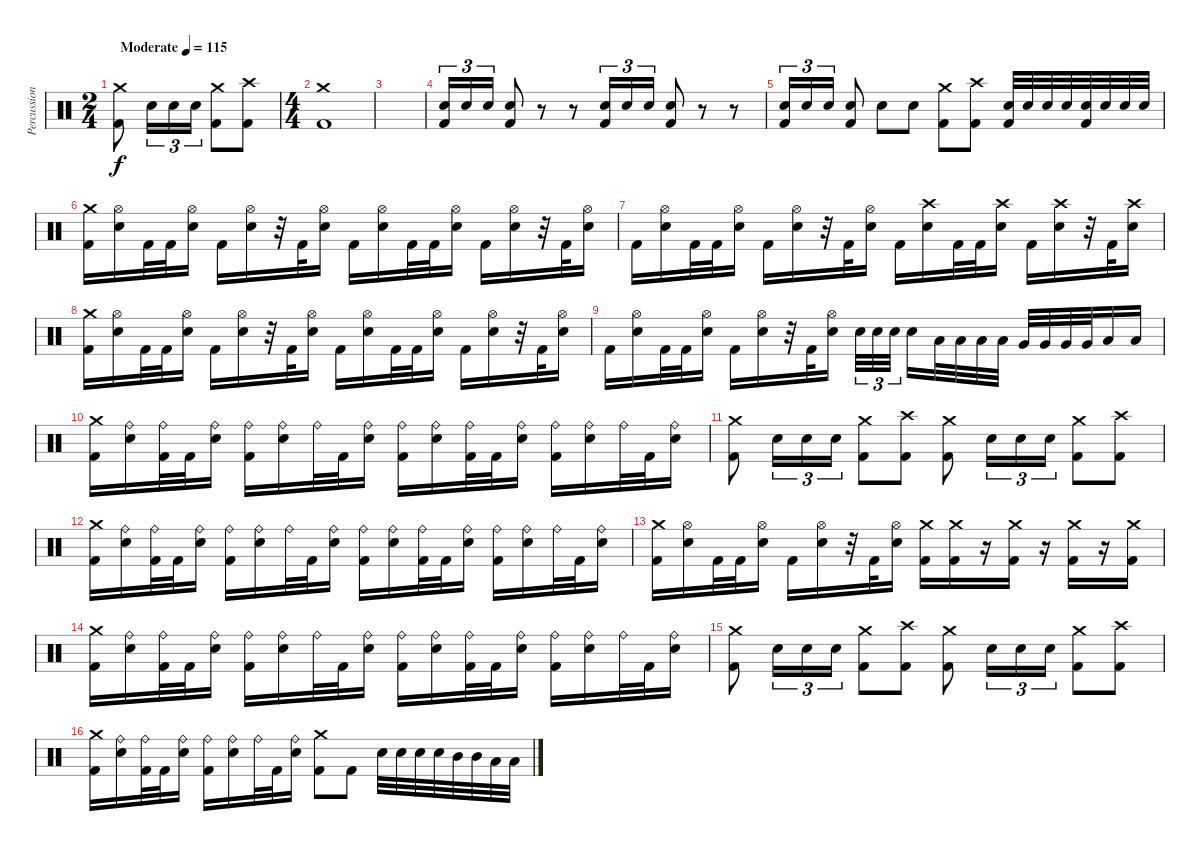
\track ("Percussion" "Percussion") {instrument percussion}
\staff {score}
\articulation defaults
\ts (2 4)
\tempo (115 "Moderate")
\clef neutral
\ks c
("Crash medium (hit)" "Kick (hit) 2").8{dy f} "Electric Snare (hit)".16{tu (3 2)} "Electric Snare (hit)".16{tu (3 2)} "Electric Snare (hit)".16{tu (3 2)} ("Crash medium (hit)" "Kick (hit) 2").8 ("Crash high (hit)" "Kick (hit) 2").8 |
\ts (4 4)
("Crash medium (hit)" "Kick (hit) 2").1 |
|
("Electric Snare (hit)" "Kick (hit) 2").16{tu (3 2)} "Electric Snare (hit)".16{tu (3 2)} "Electric Snare (hit)".16{tu (3 2)} ("Electric Snare (hit)" "Kick (hit) 2").8 r.8 r.8 ("Electric Snare (hit)" "Kick (hit) 2").16{tu (3 2)} "Electric Snare (hit)".16{tu (3 2)} "Electric Snare (hit)".16{tu (3 2)} ("Electric Snare (hit)" "Kick (hit) 2").8 r.8 r.8 |
("Electric Snare (hit)" "Kick (hit) 2").16{tu (3 2)} "Electric Snare (hit)".16{tu (3 2)} "Electric Snare (hit)".16{tu (3 2)} ("Electric Snare (hit)" "Kick (hit) 2").8 "Electric Snare (hit)".8 "Electric Snare (hit)".8 ("Crash medium (hit)" "Kick (hit) 2").8 ("Crash high (hit)" "Kick (hit) 2").8 ("Electric Snare (hit)" "Kick (hit) 2").32 "Electric Snare (hit)".32 "Electric Snare (hit)".32 "Electric Snare (hit)".32 ("Electric Snare (hit)" "Kick (hit) 2").32 "Electric Snare (hit)".32 "Electric Snare (hit)".32 "Electric Snare (hit)".32 |
("Crash medium (hit)" "Kick (hit) 2").16 ("Hi-Hat (open)" "Electric Snare (hit)").16 "Kick (hit) 2".32 "Kick (hit) 2".32 ("Hi-Hat (open)" "Electric Snare (hit)").16 "Kick (hit) 2".16 ("Hi-Hat (open)" "Electric Snare (hit)").16 r.32 "Kick (hit) 2".32 ("Hi-Hat (open)" "Electric Snare (hit)").16 "Kick (hit) 2".16 ("Hi-Hat (open)" "Electric Snare (hit)").16 "Kick (hit) 2".32 "Kick (hit) 2".32 ("Hi-Hat (open)" "Electric Snare (hit)").16 "Kick (hit) 2".16 ("Hi-Hat (open)" "Electric Snare (hit)").16 r.32 "Kick (hit) 2".32 ("Hi-Hat (open)" "Electric Snare (hit)").16 |
"Kick (hit) 2".16 ("Hi-Hat (open)" "Electric Snare (hit)").16 "Kick (hit) 2".32 "Kick (hit) 2".32 ("Hi-Hat (open)" "Electric Snare (hit)").16 "Kick (hit) 2".16 ("Hi-Hat (open)" "Electric Snare (hit)").16 r.32 "Kick (hit) 2".32 ("Hi-Hat (open)" "Electric Snare (hit)").16 "Kick (hit) 2".16 ("Crash high (hit)" "Electric Snare (hit)").16 "Kick (hit) 2".32 "Kick (hit) 2".32 ("Crash high (hit)" "Electric Snare (hit)").16 "Kick (hit) 2".16 ("Crash high (hit)" "Electric Snare (hit)").16 r.32 "Kick (hit) 2".32 ("Crash high (hit)" "Electric Snare (hit)").16 |
("Crash medium (hit)" "Kick (hit) 2").16 ("Hi-Hat (open)" "Electric Snare (hit)").16 "Kick (hit) 2".32 "Kick (hit) 2".32 ("Hi-Hat (open)" "Electric Snare (hit)").16 "Kick (hit) 2".16 ("Hi-Hat (open)" "Electric Snare (hit)").16 r.32 "Kick (hit) 2".32 ("Hi-Hat (open)" "Electric Snare (hit)").16 "Kick (hit) 2".16 ("Hi-Hat (open)" "Electric Snare (hit)").16 "Kick (hit) 2".32 "Kick (hit) 2".32 ("Hi-Hat (open)" "Electric Snare (hit)").16 "Kick (hit) 2".16 ("Hi-Hat (open)" "Electric Snare (hit)").16 r.32 "Kick (hit) 2".32 ("Hi-Hat (open)" "Electric Snare (hit)").16 |
"Kick (hit) 2".16 ("Hi-Hat (open)" "Electric Snare (hit)").16 "Kick (hit) 2".32 "Kick (hit) 2".32 ("Hi-Hat (open)" "Electric Snare (hit)").16 "Kick (hit) 2".16 ("Hi-Hat (open)" "Electric Snare (hit)").16 r.32 "Kick (hit) 2".32 ("Hi-Hat (open)" "Electric Snare (hit)").16 "Electric Snare (hit)".32{tu (3 2)} "Electric Snare (hit)".32{tu (3 2)} "Electric Snare (hit)".32{tu (3 2) beam splitsecondary} "Electric Snare (hit)".16 "Low Tom (hit)".32 "Low Tom (hit)".32 "Low Tom (hit)".32 "Low Tom (hit)".32 "Very Low Tom (hit)".32 "Very Low Tom (hit)".32 "Very Low Tom (hit)".32 "Very Low Tom (hit)".32 "Low Floor Tom (hit)".16 "Low Floor Tom (hit)".16 |
("Crash medium (hit)" "Kick (hit) 2").16 ("Ride (bell)" "Electric Snare (hit)").16 ("Ride (bell)" "Kick (hit) 2").32 "Kick (hit) 2".32 ("Ride (bell)" "Electric Snare (hit)").16 ("Ride (bell)" "Kick (hit) 2").16 ("Ride (bell)" "Electric Snare (hit)").16 "Ride (bell)".32 "Kick (hit) 2".32 ("Ride (bell)" "Electric Snare (hit)").16 ("Ride (bell)" "Kick (hit) 2").16 ("Ride (bell)" "Electric Snare (hit)").16 ("Ride (bell)" "Kick (hit) 2").32 "Kick (hit) 2".32 ("Ride (bell)" "Electric Snare (hit)").16 ("Ride (bell)" "Kick (hit) 2").16 ("Ride (bell)" "Electric Snare (hit)").16 "Ride (bell)".32 "Kick (hit) 2".32 ("Ride (bell)" "Electric Snare (hit)").16 |
("Crash medium (hit)" "Kick (hit) 2").8 "Electric Snare (hit)".16{tu (3 2)} "Electric Snare (hit)".16{tu (3 2)} "Electric Snare (hit)".16{tu (3 2)} ("Crash medium (hit)" "Kick (hit) 2").8 ("Crash high (hit)" "Kick (hit) 2").8 ("Crash medium (hit)" "Kick (hit) 2").8 "Electric Snare (hit)".16{tu (3 2)} "Electric Snare (hit)".16{tu (3 2)} "Electric Snare (hit)".16{tu (3 2)} ("Crash medium (hit)" "Kick (hit) 2").8 ("Crash high (hit)" "Kick (hit) 2").8 |
("Crash medium (hit)" "Kick (hit) 2").16 ("Ride (bell)" "Electric Snare (hit)").16 ("Ride (bell)" "Kick (hit) 2").32 "Kick (hit) 2".32 ("Ride (bell)" "Electric Snare (hit)").16 ("Ride (bell)" "Kick (hit) 2").16 ("Ride (bell)" "Electric Snare (hit)").16 "Ride (bell)".32 "Kick (hit) 2".32 ("Ride (bell)" "Electric Snare (hit)").16 ("Ride (bell)" "Kick (hit) 2").16 ("Ride (bell)" "Electric Snare (hit)").16 ("Ride (bell)" "Kick (hit) 2").32 "Kick (hit) 2".32 ("Ride (bell)" "Electric Snare (hit)").16 ("Ride (bell)" "Kick (hit) 2").16 ("Ride (bell)" "Electric Snare (hit)").16 "Ride (bell)".32 "Kick (hit) 2".32 ("Ride (bell)" "Electric Snare (hit)").16 |
("Crash medium (hit)" "Kick (hit) 2").16 ("Hi-Hat (open)" "Electric Snare (hit)").16 "Kick (hit) 2".32 "Kick (hit) 2".32 ("Hi-Hat (open)" "Electric Snare (hit)").16 "Kick (hit) 2".16 ("Hi-Hat (open)" "Electric Snare (hit)").16 r.32 "Kick (hit) 2".32 ("Hi-Hat (open)" "Electric Snare (hit)").16 ("Crash medium (hit)" "Kick (hit) 2").16 ("Crash medium (hit)" "Kick (hit) 2").16 r.16 ("Crash medium (hit)" "Kick (hit) 2").16 r.16 ("Crash medium (hit)" "Kick (hit) 2").16 r.16 ("Crash medium (hit)" "Kick (hit) 2").16 |
("Crash medium (hit)" "Kick (hit) 2").16 ("Ride (bell)" "Electric Snare (hit)").16 ("Ride (bell)" "Kick (hit) 2").32 "Kick (hit) 2".32 ("Ride (bell)" "Electric Snare (hit)").16 ("Ride (bell)" "Kick (hit) 2").16 ("Ride (bell)" "Electric Snare (hit)").16 "Ride (bell)".32 "Kick (hit) 2".32 ("Ride (bell)" "Electric Snare (hit)").16 ("Ride (bell)" "Kick (hit) 2").16 ("Ride (bell)" "Electric Snare (hit)").16 ("Ride (bell)" "Kick (hit) 2").32 "Kick (hit) 2".32 ("Ride (bell)" "Electric Snare (hit)").16 ("Ride (bell)" "Kick (hit) 2").16 ("Ride (bell)" "Electric Snare (hit)").16 "Ride (bell)".32 "Kick (hit) 2".32 ("Ride (bell)" "Electric Snare (hit)").16 |
("Crash medium (hit)" "Kick (hit) 2").8 "Electric Snare (hit)".16{tu (3 2)} "Electric Snare (hit)".16{tu (3 2)} "Electric Snare (hit)".16{tu (3 2)} ("Crash medium (hit)" "Kick (hit) 2").8 ("Crash high (hit)" "Kick (hit) 2").8 ("Crash medium (hit)" "Kick (hit) 2").8 "Electric Snare (hit)".16{tu (3 2)} "Electric Snare (hit)".16{tu (3 2)} "Electric Snare (hit)".16{tu (3 2)} ("Crash medium (hit)" "Kick (hit) 2").8 ("Crash high (hit)" "Kick (hit) 2").8 |
("Crash medium (hit)" "Kick (hit) 2").16 ("Ride (bell)" "Electric Snare (hit)").16 ("Ride (bell)" "Kick (hit) 2").32 "Kick (hit) 2".32 ("Ride (bell)" "Electric Snare (hit)").16 ("Ride (bell)" "Kick (hit) 2").16 ("Ride (bell)" "Electric Snare (hit)").16 "Ride (bell)".32 "Kick (hit) 2".32 ("Ride (bell)" "Electric Snare (hit)").16 ("Crash medium (hit)" "Kick (hit) 2").8 "Kick (hit) 2".8 "Electric Snare (hit)".32 "Electric Snare (hit)".32 "Electric Snare (hit)".32 "Electric Snare (hit)".32 "Mid Tom (hit)".32 "Mid Tom (hit)".32 "Low Tom (hit)".32 "Low Tom (hit)".32
